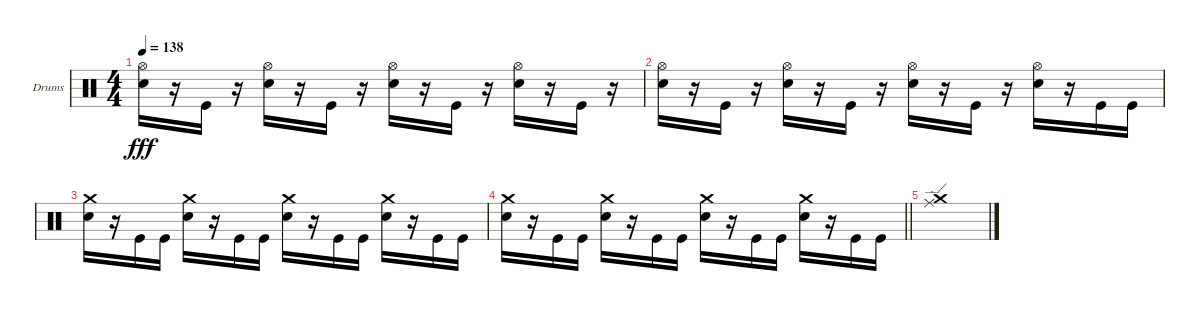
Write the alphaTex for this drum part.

\bracketExtendMode groupsimilarinstruments
\firstSystemTrackNameOrientation horizontal
\otherSystemsTrackNameOrientation horizontal
\track ("Drumkit" "Drums") {instrument percussion}
\staff {score}
\articulation defaults
\ts (4 4)
\tempo 138
\clef neutral
\ks c
("Snare (hit) 2" "Hi-Hat (open)").16{dy fff} r.16 "Kick (hit)".16 r.16 ("Snare (hit) 2" "Hi-Hat (open)").16 r.16 "Kick (hit)".16 r.16 ("Snare (hit) 2" "Hi-Hat (open)").16 r.16 "Kick (hit)".16 r.16 ("Snare (hit) 2" "Hi-Hat (open)").16 r.16 "Kick (hit)".16 r.16 |
("Snare (hit) 2" "Hi-Hat (open)").16 r.16 "Kick (hit)".16 r.16 ("Snare (hit) 2" "Hi-Hat (open)").16 r.16 "Kick (hit)".16 r.16 ("Snare (hit) 2" "Hi-Hat (open)").16 r.16 "Kick (hit)".16 r.16 ("Snare (hit) 2" "Hi-Hat (open)").16 r.16 "Kick (hit)".16 "Kick (hit)".16 |
("Snare (hit) 2" "Crash medium (hit)").16 r.16 "Kick (hit)".16 "Kick (hit)".16 ("Snare (hit) 2" "Crash medium (hit)").16 r.16 "Kick (hit)".16 "Kick (hit)".16 ("Snare (hit) 2" "Crash medium (hit)").16 r.16 "Kick (hit)".16 "Kick (hit)".16 ("Snare (hit) 2" "Crash medium (hit)").16 r.16 "Kick (hit)".16 "Kick (hit)".16 |
\barLineRight lightlight
("Snare (hit) 2" "Crash medium (hit)").16 r.16 "Kick (hit)".16 "Kick (hit)".16 ("Snare (hit) 2" "Crash medium (hit)").16 r.16 "Kick (hit)".16 "Kick (hit)".16 ("Snare (hit) 2" "Crash medium (hit)").16 r.16 "Kick (hit)".16 "Kick (hit)".16 ("Snare (hit) 2" "Crash medium (hit)").16 r.16 "Kick (hit)".16 "Kick (hit)".16 |
("Ride (edge)" "Crash medium (hit)").1
